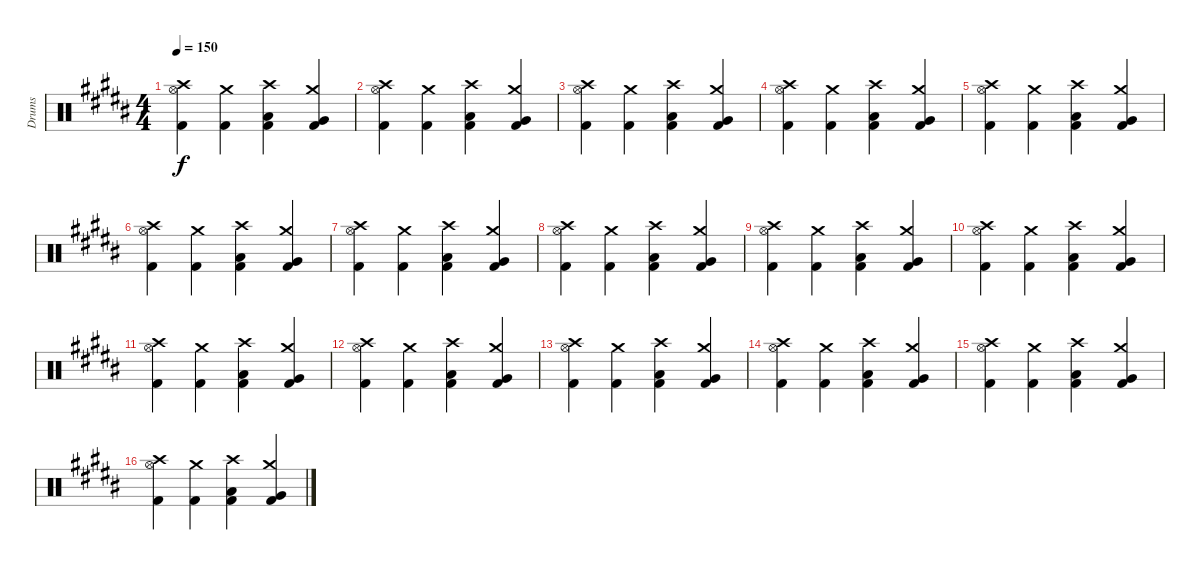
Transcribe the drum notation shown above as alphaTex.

\track ("Drums" "Drums") {instrument percussion}
\staff {score}
\articulation defaults
\ts (4 4)
\tempo 150
\clef neutral
\ks b
("Crash high (hit)" "Hi-Hat (open)" "Kick (hit) 2").4{dy f} ("Crash medium (hit)" "Kick (hit) 2").4 ("Crash high (hit)" "Low Tom (hit)" "Kick (hit) 2").4 ("Crash medium (hit)" "Very Low Tom (hit)" "Kick (hit) 2").4 |
("Crash high (hit)" "Hi-Hat (open)" "Kick (hit) 2").4 ("Crash medium (hit)" "Kick (hit) 2").4 ("Crash high (hit)" "Low Tom (hit)" "Kick (hit) 2").4 ("Crash medium (hit)" "Very Low Tom (hit)" "Kick (hit) 2").4 |
("Crash high (hit)" "Hi-Hat (open)" "Kick (hit) 2").4 ("Crash medium (hit)" "Kick (hit) 2").4 ("Crash high (hit)" "Low Tom (hit)" "Kick (hit) 2").4 ("Crash medium (hit)" "Very Low Tom (hit)" "Kick (hit) 2").4 |
("Crash high (hit)" "Hi-Hat (open)" "Kick (hit) 2").4 ("Crash medium (hit)" "Kick (hit) 2").4 ("Crash high (hit)" "Low Tom (hit)" "Kick (hit) 2").4 ("Crash medium (hit)" "Very Low Tom (hit)" "Kick (hit) 2").4 |
("Crash high (hit)" "Hi-Hat (open)" "Kick (hit) 2").4 ("Crash medium (hit)" "Kick (hit) 2").4 ("Crash high (hit)" "Low Tom (hit)" "Kick (hit) 2").4 ("Crash medium (hit)" "Very Low Tom (hit)" "Kick (hit) 2").4 |
("Crash high (hit)" "Hi-Hat (open)" "Kick (hit) 2").4 ("Crash medium (hit)" "Kick (hit) 2").4 ("Crash high (hit)" "Low Tom (hit)" "Kick (hit) 2").4 ("Crash medium (hit)" "Very Low Tom (hit)" "Kick (hit) 2").4 |
("Crash high (hit)" "Hi-Hat (open)" "Kick (hit) 2").4 ("Crash medium (hit)" "Kick (hit) 2").4 ("Crash high (hit)" "Low Tom (hit)" "Kick (hit) 2").4 ("Crash medium (hit)" "Very Low Tom (hit)" "Kick (hit) 2").4 |
("Crash high (hit)" "Hi-Hat (open)" "Kick (hit) 2").4 ("Crash medium (hit)" "Kick (hit) 2").4 ("Crash high (hit)" "Low Tom (hit)" "Kick (hit) 2").4 ("Crash medium (hit)" "Very Low Tom (hit)" "Kick (hit) 2").4 |
("Crash high (hit)" "Hi-Hat (open)" "Kick (hit) 2").4 ("Crash medium (hit)" "Kick (hit) 2").4 ("Crash high (hit)" "Low Tom (hit)" "Kick (hit) 2").4 ("Crash medium (hit)" "Very Low Tom (hit)" "Kick (hit) 2").4 |
("Crash high (hit)" "Hi-Hat (open)" "Kick (hit) 2").4 ("Crash medium (hit)" "Kick (hit) 2").4 ("Crash high (hit)" "Low Tom (hit)" "Kick (hit) 2").4 ("Crash medium (hit)" "Very Low Tom (hit)" "Kick (hit) 2").4 |
("Crash high (hit)" "Hi-Hat (open)" "Kick (hit) 2").4 ("Crash medium (hit)" "Kick (hit) 2").4 ("Crash high (hit)" "Low Tom (hit)" "Kick (hit) 2").4 ("Crash medium (hit)" "Very Low Tom (hit)" "Kick (hit) 2").4 |
("Crash high (hit)" "Hi-Hat (open)" "Kick (hit) 2").4 ("Crash medium (hit)" "Kick (hit) 2").4 ("Crash high (hit)" "Low Tom (hit)" "Kick (hit) 2").4 ("Crash medium (hit)" "Very Low Tom (hit)" "Kick (hit) 2").4 |
("Crash high (hit)" "Hi-Hat (open)" "Kick (hit) 2").4 ("Crash medium (hit)" "Kick (hit) 2").4 ("Crash high (hit)" "Low Tom (hit)" "Kick (hit) 2").4 ("Crash medium (hit)" "Very Low Tom (hit)" "Kick (hit) 2").4 |
("Crash high (hit)" "Hi-Hat (open)" "Kick (hit) 2").4 ("Crash medium (hit)" "Kick (hit) 2").4 ("Crash high (hit)" "Low Tom (hit)" "Kick (hit) 2").4 ("Crash medium (hit)" "Very Low Tom (hit)" "Kick (hit) 2").4 |
("Crash high (hit)" "Hi-Hat (open)" "Kick (hit) 2").4 ("Crash medium (hit)" "Kick (hit) 2").4 ("Crash high (hit)" "Low Tom (hit)" "Kick (hit) 2").4 ("Crash medium (hit)" "Very Low Tom (hit)" "Kick (hit) 2").4 |
("Crash high (hit)" "Hi-Hat (open)" "Kick (hit) 2").4 ("Crash medium (hit)" "Kick (hit) 2").4 ("Crash high (hit)" "Low Tom (hit)" "Kick (hit) 2").4 ("Crash medium (hit)" "Very Low Tom (hit)" "Kick (hit) 2").4
